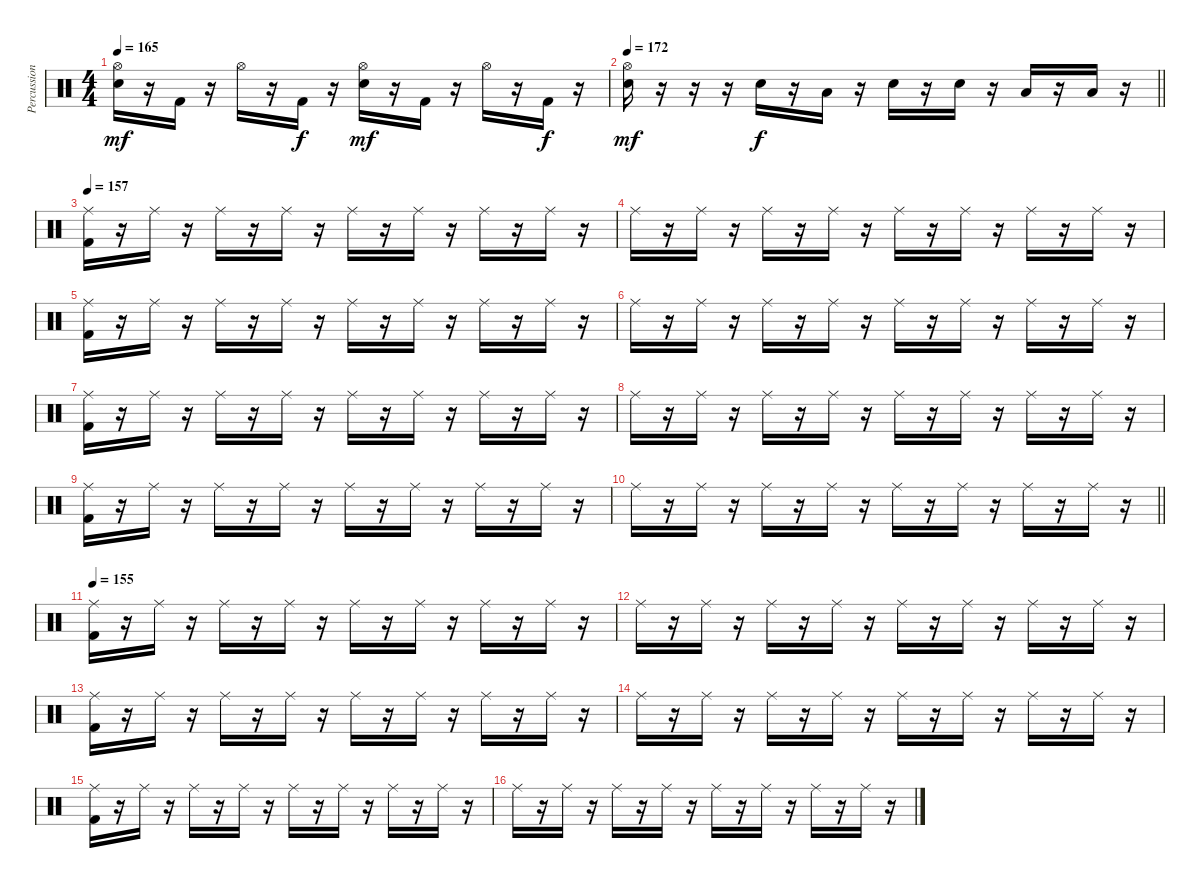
\track ("Percussion" "Percussion") {instrument percussion}
\staff {score}
\articulation defaults
\ts (4 4)
\tempo 165
\clef neutral
\ks c
("Hi-Hat (open)" "Electric Snare (hit)").16{dy mf} r.16 "Kick (hit) 2".16 r.16 "Hi-Hat (open)".16 r.16 "Kick (hit) 2".16{dy f} r.16 ("Hi-Hat (open)" "Electric Snare (hit)").16{dy mf} r.16 "Kick (hit) 2".16 r.16 "Hi-Hat (open)".16 r.16 "Kick (hit) 2".16{dy f} r.16 |
\tempo 172
\barLineRight lightlight
("Hi-Hat (open)" "Electric Snare (hit)").16{dy mf} r.16 r.16 r.16 "Electric Snare (hit)".16{dy f} r.16 "Low Tom (hit)".16 r.16 "Electric Snare (hit)".16 r.16 "Electric Snare (hit)".16 r.16 "Low Tom (hit)".16 r.16 "Low Tom (hit)".16 r.16 |
\section ("" "")
\tempo 157
("Ride (middle)" "Kick (hit) 2").16 r.16 "Ride (middle)".16 r.16 "Ride (middle)".16 r.16 "Ride (middle)".16 r.16 "Ride (middle)".16 r.16 "Ride (middle)".16 r.16 "Ride (middle)".16 r.16 "Ride (middle)".16 r.16 |
"Ride (middle)".16 r.16 "Ride (middle)".16 r.16 "Ride (middle)".16 r.16 "Ride (middle)".16 r.16 "Ride (middle)".16 r.16 "Ride (middle)".16 r.16 "Ride (middle)".16 r.16 "Ride (middle)".16 r.16 |
("Ride (middle)" "Kick (hit) 2").16 r.16 "Ride (middle)".16 r.16 "Ride (middle)".16 r.16 "Ride (middle)".16 r.16 "Ride (middle)".16 r.16 "Ride (middle)".16 r.16 "Ride (middle)".16 r.16 "Ride (middle)".16 r.16 |
"Ride (middle)".16 r.16 "Ride (middle)".16 r.16 "Ride (middle)".16 r.16 "Ride (middle)".16 r.16 "Ride (middle)".16 r.16 "Ride (middle)".16 r.16 "Ride (middle)".16 r.16 "Ride (middle)".16 r.16 |
("Ride (middle)" "Kick (hit) 2").16 r.16 "Ride (middle)".16 r.16 "Ride (middle)".16 r.16 "Ride (middle)".16 r.16 "Ride (middle)".16 r.16 "Ride (middle)".16 r.16 "Ride (middle)".16 r.16 "Ride (middle)".16 r.16 |
"Ride (middle)".16 r.16 "Ride (middle)".16 r.16 "Ride (middle)".16 r.16 "Ride (middle)".16 r.16 "Ride (middle)".16 r.16 "Ride (middle)".16 r.16 "Ride (middle)".16 r.16 "Ride (middle)".16 r.16 |
("Ride (middle)" "Kick (hit) 2").16 r.16 "Ride (middle)".16 r.16 "Ride (middle)".16 r.16 "Ride (middle)".16 r.16 "Ride (middle)".16 r.16 "Ride (middle)".16 r.16 "Ride (middle)".16 r.16 "Ride (middle)".16 r.16 |
\barLineRight lightlight "Ride (middle)".16
r.16 "Ride (middle)".16 r.16 "Ride (middle)".16 r.16 "Ride (middle)".16 r.16 "Ride (middle)".16 r.16 "Ride (middle)".16 r.16 "Ride (middle)".16 r.16 "Ride (middle)".16 r.16 |
\section ("" "")
\tempo 155
("Ride (middle)" "Kick (hit) 2").16 r.16 "Ride (middle)".16 r.16 "Ride (middle)".16 r.16 "Ride (middle)".16 r.16 "Ride (middle)".16 r.16 "Ride (middle)".16 r.16 "Ride (middle)".16 r.16 "Ride (middle)".16 r.16 |
"Ride (middle)".16 r.16 "Ride (middle)".16 r.16 "Ride (middle)".16 r.16 "Ride (middle)".16 r.16 "Ride (middle)".16 r.16 "Ride (middle)".16 r.16 "Ride (middle)".16 r.16 "Ride (middle)".16 r.16 |
("Ride (middle)" "Kick (hit) 2").16 r.16 "Ride (middle)".16 r.16 "Ride (middle)".16 r.16 "Ride (middle)".16 r.16 "Ride (middle)".16 r.16 "Ride (middle)".16 r.16 "Ride (middle)".16 r.16 "Ride (middle)".16 r.16 |
"Ride (middle)".16 r.16 "Ride (middle)".16 r.16 "Ride (middle)".16 r.16 "Ride (middle)".16 r.16 "Ride (middle)".16 r.16 "Ride (middle)".16 r.16 "Ride (middle)".16 r.16 "Ride (middle)".16 r.16 |
("Ride (middle)" "Kick (hit) 2").16 r.16 "Ride (middle)".16 r.16 "Ride (middle)".16 r.16 "Ride (middle)".16 r.16 "Ride (middle)".16 r.16 "Ride (middle)".16 r.16 "Ride (middle)".16 r.16 "Ride (middle)".16 r.16 |
"Ride (middle)".16 r.16 "Ride (middle)".16 r.16 "Ride (middle)".16 r.16 "Ride (middle)".16 r.16 "Ride (middle)".16 r.16 "Ride (middle)".16 r.16 "Ride (middle)".16 r.16 "Ride (middle)".16 r.16
